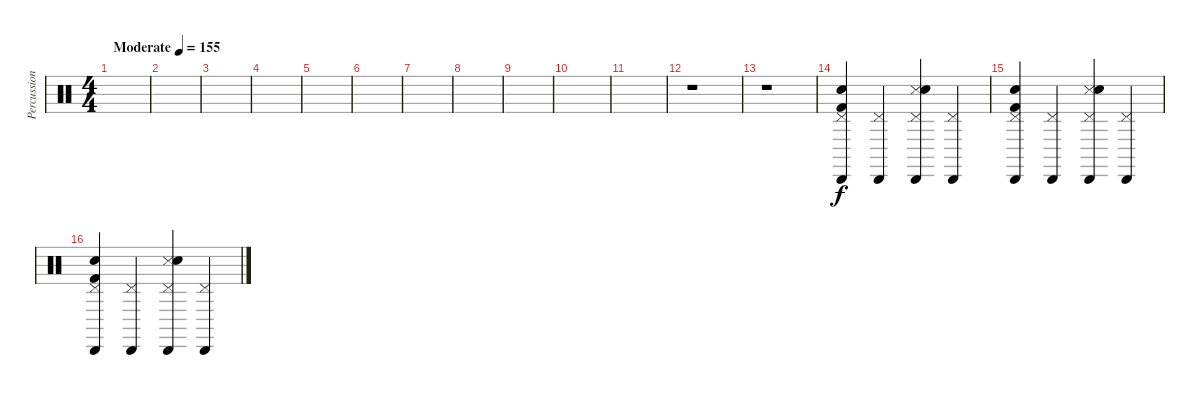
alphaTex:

\track ("Percussion" "Percussion") {instrument percussion}
\staff {score}
\articulation defaults
\ts (4 4)
\tempo (155 "Moderate")
\clef neutral
\ks c
|
|
|
|
|
|
|
|
|
|
|
r.1 |
r.1 |
("Electric Snare (hit)" "Cabasa (hit)" "Pedal Hi-Hat (hit)" "Kick (hit) 2").4 ("Cabasa (hit)" "Pedal Hi-Hat (hit)").4 ("Snare (side stick) 3" "Snare (hit) 2" "Cabasa (hit)" "Pedal Hi-Hat (hit)").4 ("Cabasa (hit)" "Pedal Hi-Hat (hit)").4 |
("Electric Snare (hit)" "Cabasa (hit)" "Pedal Hi-Hat (hit)" "Kick (hit) 2").4 ("Cabasa (hit)" "Pedal Hi-Hat (hit)").4 ("Snare (side stick) 3" "Snare (hit) 2" "Cabasa (hit)" "Pedal Hi-Hat (hit)").4 ("Cabasa (hit)" "Pedal Hi-Hat (hit)").4 |
("Electric Snare (hit)" "Cabasa (hit)" "Pedal Hi-Hat (hit)" "Kick (hit) 2").4 ("Cabasa (hit)" "Pedal Hi-Hat (hit)").4 ("Snare (side stick) 3" "Snare (hit) 2" "Cabasa (hit)" "Pedal Hi-Hat (hit)").4 ("Cabasa (hit)" "Pedal Hi-Hat (hit)").4
